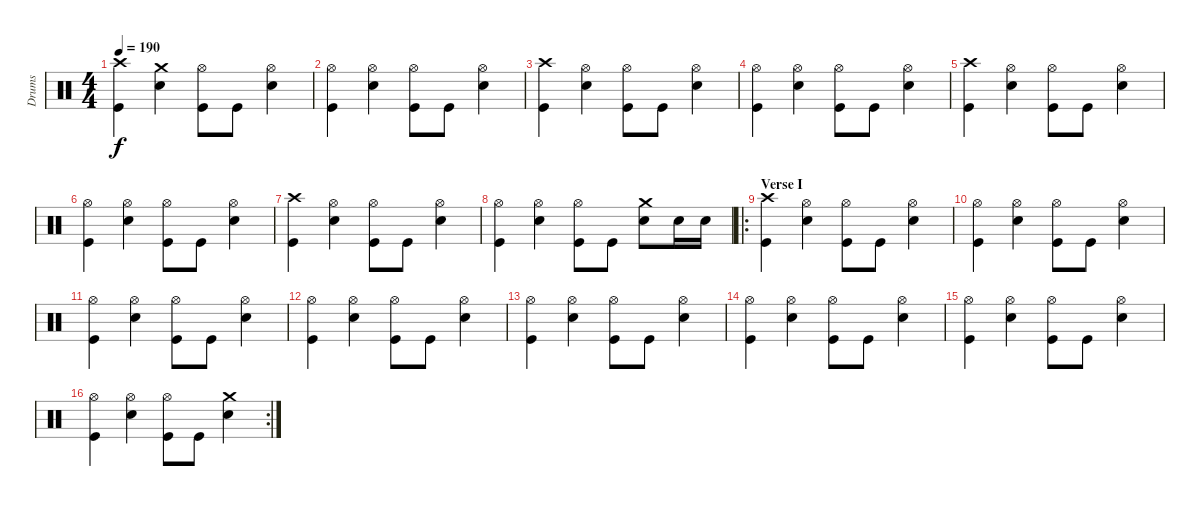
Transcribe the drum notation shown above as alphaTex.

\track ("Drums" "Drums") {instrument percussion}
\staff {score}
\articulation defaults
\ts (4 4)
\tempo 190
\clef neutral
\ks c
("Crash high (hit)" "Kick (hit)").4{dy f} ("Crash medium (hit)" "Snare (hit) 2").4 ("Hi-Hat (open)" "Kick (hit)").8 "Kick (hit)".8 ("Hi-Hat (open)" "Snare (hit) 2").4 |
("Hi-Hat (open)" "Kick (hit)").4 ("Hi-Hat (open)" "Snare (hit) 2").4 ("Hi-Hat (open)" "Kick (hit)").8 "Kick (hit)".8 ("Hi-Hat (open)" "Snare (hit) 2").4 |
("Crash high (hit)" "Kick (hit)").4 ("Hi-Hat (open)" "Snare (hit) 2").4 ("Hi-Hat (open)" "Kick (hit)").8 "Kick (hit)".8 ("Hi-Hat (open)" "Snare (hit) 2").4 |
("Hi-Hat (open)" "Kick (hit)").4 ("Hi-Hat (open)" "Snare (hit) 2").4 ("Hi-Hat (open)" "Kick (hit)").8 "Kick (hit)".8 ("Hi-Hat (open)" "Snare (hit) 2").4 |
("Crash high (hit)" "Kick (hit)").4 ("Hi-Hat (open)" "Snare (hit) 2").4 ("Hi-Hat (open)" "Kick (hit)").8 "Kick (hit)".8 ("Hi-Hat (open)" "Snare (hit) 2").4 |
("Hi-Hat (open)" "Kick (hit)").4 ("Hi-Hat (open)" "Snare (hit) 2").4 ("Hi-Hat (open)" "Kick (hit)").8 "Kick (hit)".8 ("Hi-Hat (open)" "Snare (hit) 2").4 |
("Crash high (hit)" "Kick (hit)").4 ("Hi-Hat (open)" "Snare (hit) 2").4 ("Hi-Hat (open)" "Kick (hit)").8 "Kick (hit)".8 ("Hi-Hat (open)" "Snare (hit) 2").4 |
("Hi-Hat (open)" "Kick (hit)").4 ("Hi-Hat (open)" "Snare (hit) 2").4 ("Hi-Hat (open)" "Kick (hit)").8 "Kick (hit)".8 ("Crash medium (hit)" "Snare (hit) 2").8 "Snare (hit) 2".16 "Snare (hit) 2".16 |
\ro
\section ("" "Verse I")
("Crash high (hit)" "Kick (hit)").4 ("Hi-Hat (open)" "Snare (hit) 2").4 ("Hi-Hat (open)" "Kick (hit)").8 "Kick (hit)".8 ("Hi-Hat (open)" "Snare (hit) 2").4 |
("Hi-Hat (open)" "Kick (hit)").4 ("Hi-Hat (open)" "Snare (hit) 2").4 ("Hi-Hat (open)" "Kick (hit)").8 "Kick (hit)".8 ("Hi-Hat (open)" "Snare (hit) 2").4 |
("Hi-Hat (open)" "Kick (hit)").4 ("Hi-Hat (open)" "Snare (hit) 2").4 ("Hi-Hat (open)" "Kick (hit)").8 "Kick (hit)".8 ("Hi-Hat (open)" "Snare (hit) 2").4 |
("Hi-Hat (open)" "Kick (hit)").4 ("Hi-Hat (open)" "Snare (hit) 2").4 ("Hi-Hat (open)" "Kick (hit)").8 "Kick (hit)".8 ("Hi-Hat (open)" "Snare (hit) 2").4 |
("Hi-Hat (open)" "Kick (hit)").4 ("Hi-Hat (open)" "Snare (hit) 2").4 ("Hi-Hat (open)" "Kick (hit)").8 "Kick (hit)".8 ("Hi-Hat (open)" "Snare (hit) 2").4 |
("Hi-Hat (open)" "Kick (hit)").4 ("Hi-Hat (open)" "Snare (hit) 2").4 ("Hi-Hat (open)" "Kick (hit)").8 "Kick (hit)".8 ("Hi-Hat (open)" "Snare (hit) 2").4 |
("Hi-Hat (open)" "Kick (hit)").4 ("Hi-Hat (open)" "Snare (hit) 2").4 ("Hi-Hat (open)" "Kick (hit)").8 "Kick (hit)".8 ("Hi-Hat (open)" "Snare (hit) 2").4 |
\rc 2
("Hi-Hat (open)" "Kick (hit)").4 ("Hi-Hat (open)" "Snare (hit) 2").4 ("Hi-Hat (open)" "Kick (hit)").8 "Kick (hit)".8 ("Crash medium (hit)" "Snare (hit) 2").4
